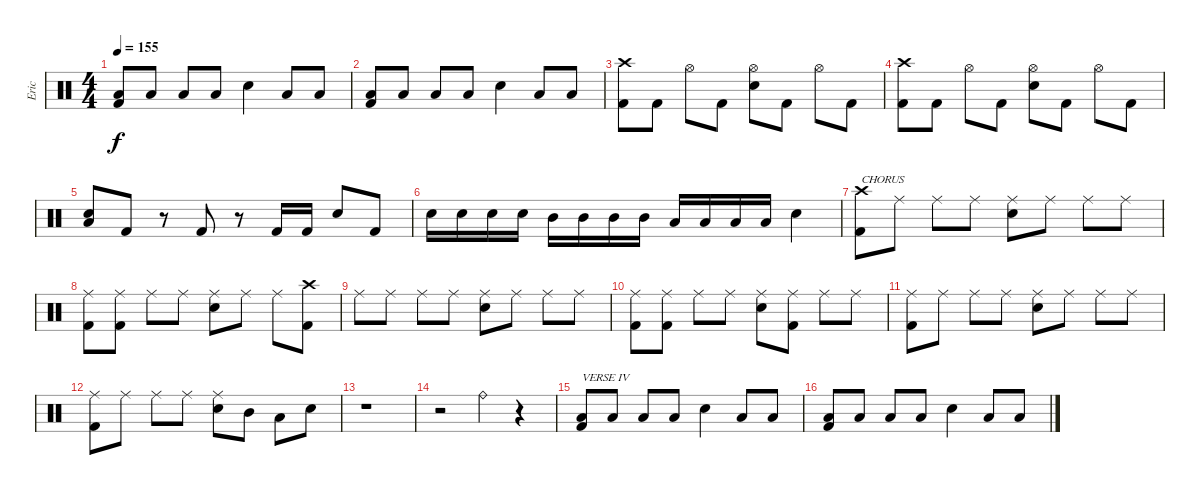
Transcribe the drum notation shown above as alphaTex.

\track ("Eric" "Eric") {instrument percussion}
\staff {score}
\articulation defaults
\ts (4 4)
\tempo 155
\clef neutral
\ks c
("Low Floor Tom (hit)" "Kick (hit) 2").8{dy f} "Low Floor Tom (hit)".8 "Low Floor Tom (hit)".8 "Low Floor Tom (hit)".8 "Electric Snare (hit)".4 "Low Floor Tom (hit)".8 "Low Floor Tom (hit)".8 |
("Low Floor Tom (hit)" "Kick (hit) 2").8 "Low Floor Tom (hit)".8 "Low Floor Tom (hit)".8 "Low Floor Tom (hit)".8 "Electric Snare (hit)".4 "Low Floor Tom (hit)".8 "Low Floor Tom (hit)".8 |
("Crash high (hit)" "Kick (hit) 2").8 "Kick (hit) 2".8 "Hi-Hat (open)".8 "Kick (hit) 2".8 ("Hi-Hat (open)" "Electric Snare (hit)").8 "Kick (hit) 2".8 "Hi-Hat (open)".8 "Kick (hit) 2".8 |
("Crash high (hit)" "Kick (hit) 2").8 "Kick (hit) 2".8 "Hi-Hat (open)".8 "Kick (hit) 2".8 ("Hi-Hat (open)" "Electric Snare (hit)").8 "Kick (hit) 2".8 "Hi-Hat (open)".8 "Kick (hit) 2".8 |
("Low Floor Tom (hit)" "Electric Snare (hit)").8 "Kick (hit) 2".8 r.8 "Kick (hit) 2".8 r.8 "Kick (hit) 2".16 "Kick (hit) 2".16 "Electric Snare (hit)".8 "Kick (hit) 2".8 |
"Electric Snare (hit)".16 "Electric Snare (hit)".16 "Electric Snare (hit)".16 "Electric Snare (hit)".16 "Mid Tom (hit)".16 "Mid Tom (hit)".16 "Mid Tom (hit)".16 "Mid Tom (hit)".16 "Low Tom (hit)".16 "Low Tom (hit)".16 "Low Tom (hit)".16 "Low Tom (hit)".16 "Electric Snare (hit)".4 |
("Crash high (hit)" "Kick (hit) 2").8{txt "CHORUS"} "Ride (middle)".8 "Ride (middle)".8 "Ride (middle)".8 ("Ride (middle)" "Electric Snare (hit)").8 "Ride (middle)".8 "Ride (middle)".8 "Ride (middle)".8 |
("Ride (middle)" "Kick (hit) 2").8 ("Ride (middle)" "Kick (hit) 2").8 "Ride (middle)".8 "Ride (middle)".8 ("Ride (middle)" "Electric Snare (hit)").8 "Ride (middle)".8 "Ride (middle)".8 ("Crash high (hit)" "Kick (hit) 2").8 |
"Ride (middle)".8 "Ride (middle)".8 "Ride (middle)".8 "Ride (middle)".8 ("Ride (middle)" "Electric Snare (hit)").8 "Ride (middle)".8 "Ride (middle)".8 "Ride (middle)".8 |
("Ride (middle)" "Kick (hit) 2").8 ("Ride (middle)" "Kick (hit) 2").8 "Ride (middle)".8 "Ride (middle)".8 ("Ride (middle)" "Electric Snare (hit)").8 ("Ride (middle)" "Kick (hit) 2").8 "Ride (middle)".8 "Ride (middle)".8 |
("Ride (middle)" "Kick (hit) 2").8 "Ride (middle)".8 "Ride (middle)".8 "Ride (middle)".8 ("Ride (middle)" "Electric Snare (hit)").8 "Ride (middle)".8 "Ride (middle)".8 "Ride (middle)".8 |
("Ride (middle)" "Kick (hit) 2").8 "Ride (middle)".8 "Ride (middle)".8 "Ride (middle)".8 ("Ride (middle)" "Electric Snare (hit)").8 "Mid Tom (hit)".8 "Low Tom (hit)".8 "Electric Snare (hit)".8 |
r.1 |
r.2 "Ride (bell)".4 r.4 |
("Low Floor Tom (hit)" "Kick (hit) 2").8{txt "VERSE IV"} "Low Floor Tom (hit)".8 "Low Floor Tom (hit)".8 "Low Floor Tom (hit)".8 "Electric Snare (hit)".4 "Low Floor Tom (hit)".8 "Low Floor Tom (hit)".8 |
("Low Floor Tom (hit)" "Kick (hit) 2").8 "Low Floor Tom (hit)".8 "Low Floor Tom (hit)".8 "Low Floor Tom (hit)".8 "Electric Snare (hit)".4 "Low Floor Tom (hit)".8 "Low Floor Tom (hit)".8
